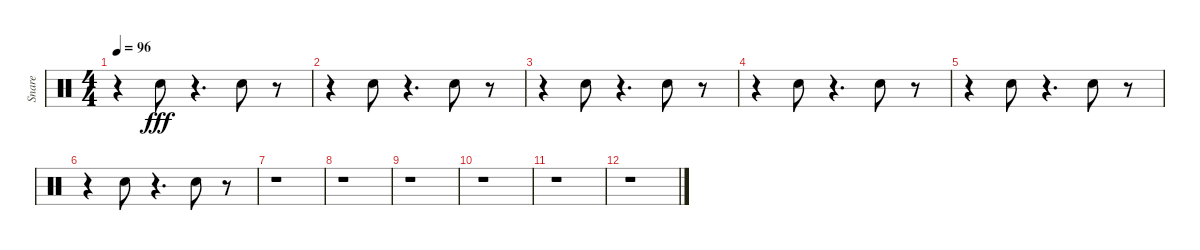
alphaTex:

\track ("Snare" "Snare") {instrument percussion}
\staff {score}
\articulation defaults
\ts (4 4)
\tempo 96
\clef neutral
\ks c
r.4{dy fff} "Snare (hit) 2".8 r.4{d} "Snare (hit) 2".8 r.8 |
r.4 "Snare (hit) 2".8 r.4{d} "Snare (hit) 2".8 r.8 |
r.4 "Snare (hit) 2".8 r.4{d} "Snare (hit) 2".8 r.8 |
r.4 "Snare (hit) 2".8 r.4{d} "Snare (hit) 2".8 r.8 |
r.4 "Snare (hit) 2".8 r.4{d} "Snare (hit) 2".8 r.8 |
r.4 "Snare (hit) 2".8 r.4{d} "Snare (hit) 2".8 r.8 |
r.1 |
r.1 |
r.1 |
r.1 |
r.1 |
r.1
